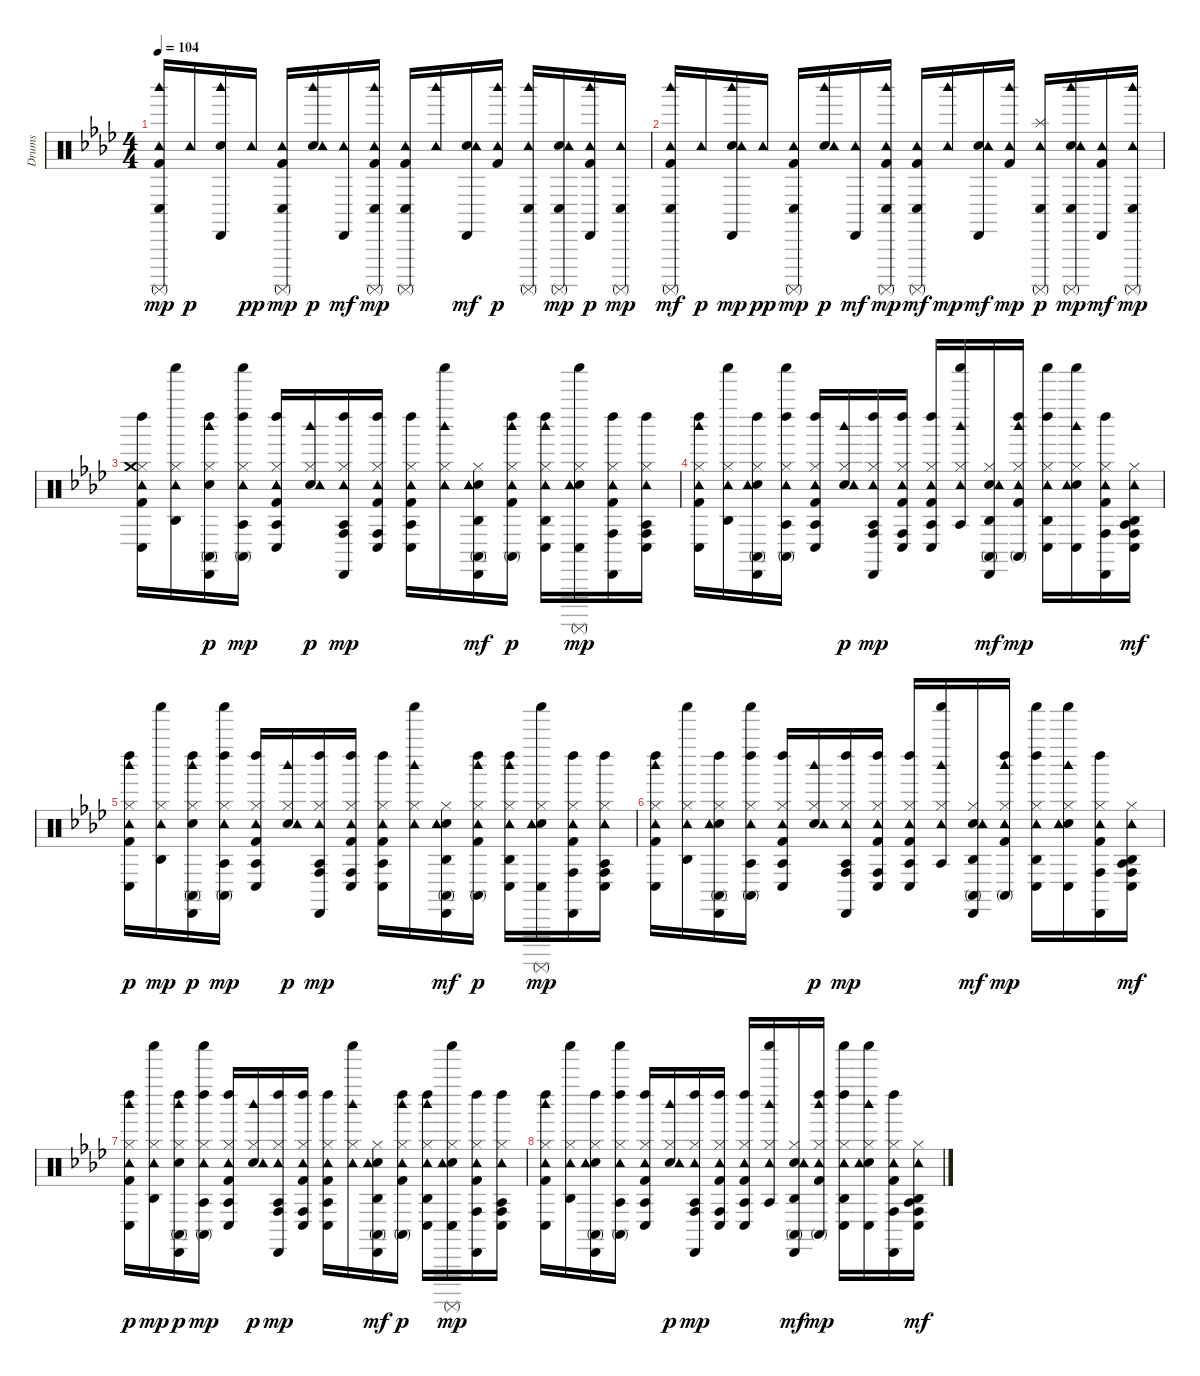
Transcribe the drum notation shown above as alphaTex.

\track ("Drums" "Drums") {instrument percussion}
\staff {score}
\articulation defaults
\ts (4 4)
\tempo 104
\clef neutral
\ks ab
("Kick (hit) 2" "Tambourine (hit)" "Conga low (hit)" "Woodblock high (hit)" "Surdo (mute)").16{dy mp} "Tambourine (hit)".16{dy p} ("Hand Clap (hit)" "Cabasa (hit)" "Woodblock high (hit)").16 "Tambourine (hit)".16{dy pp} ("Kick (hit) 2" "Tambourine (hit)" "Conga low (hit)" "Surdo (mute)").16{dy mp} ("Hand Clap (hit)" "Tambourine (hit)" "Woodblock high (hit)").16{dy p} ("Tambourine (hit)" "Cabasa (hit)").16{dy mf} ("Kick (hit) 2" "Tambourine (hit)" "Conga low (hit)" "Woodblock high (hit)" "Surdo (mute)").16{dy mp} ("Kick (hit) 2" "Tambourine (hit)" "Conga low (hit)" "Surdo (mute)").16 ("Tambourine (hit)" "Woodblock high (hit)").16 ("Hand Clap (hit)" "Tambourine (hit)" "Cabasa (hit)").16{dy mf} ("Kick (hit) 2" "Tambourine (hit)" "Woodblock high (hit)").16{dy p} ("Tambourine (hit)" "Conga low (hit)" "Woodblock high (hit)" "Surdo (mute)").16 ("Hand Clap (hit)" "Tambourine (hit)" "Conga low (hit)" "Surdo (mute)").16{dy mp} ("Kick (hit) 2" "Tambourine (hit)" "Cabasa (hit)" "Woodblock high (hit)").16{dy p} ("Tambourine (hit)" "Conga low (hit)" "Surdo (mute)").16{dy mp} |
("Kick (hit) 2" "Tambourine (hit)" "Conga low (hit)" "Woodblock high (hit)" "Surdo (mute)").16{dy mf} "Tambourine (hit)".16{dy p} ("Hand Clap (hit)" "Tambourine (hit)" "Cabasa (hit)" "Woodblock high (hit)").16{dy mp} "Tambourine (hit)".16{dy pp} ("Kick (hit) 2" "Tambourine (hit)" "Conga low (hit)" "Surdo (mute)").16{dy mp} ("Hand Clap (hit)" "Tambourine (hit)" "Woodblock high (hit)").16{dy p} ("Tambourine (hit)" "Cabasa (hit)").16{dy mf} ("Kick (hit) 2" "Tambourine (hit)" "Conga low (hit)" "Woodblock high (hit)" "Surdo (mute)").16{dy mp} ("Kick (hit) 2" "Tambourine (hit)" "Conga low (hit)" "Surdo (mute)").16{dy mf} ("Tambourine (hit)" "Woodblock high (hit)").16{dy mp} ("Hand Clap (hit)" "Tambourine (hit)" "Cabasa (hit)").16{dy mf} ("Kick (hit) 2" "Tambourine (hit)" "Woodblock high (hit)").16{dy mp} ("Tambourine (hit)" "Splash (hit)" "Conga low (hit)" "Surdo (mute)").16{dy p} ("Hand Clap (hit)" "Tambourine (hit)" "Conga low (hit)" "Woodblock high (hit)" "Surdo (mute)").16{dy mp} ("Kick (hit) 2" "Tambourine (hit)" "Cabasa (hit)").16{dy mf} ("Tambourine (hit)" "Conga low (hit)" "Woodblock high (hit)" "Surdo (mute)").16{dy mp} |
("Kick (hit) 2" "Hi-Hat (closed)" "Tambourine (hit)" "Crash medium (hit)" "Conga low (hit)" "Left Maraca (hit)").16 ("Hi-Hat (closed)" "Tambourine (hit)" "Agogo high (hit)" "Shaker (hit)").16 ("Hand Clap (hit)" "Hi-Hat (closed)" "Conga high (mute)" "Cabasa (hit)" "Left Maraca (hit)" "Woodblock high (hit)").16{dy p} ("Hi-Hat (closed)" "Tambourine (hit)" "Conga high (mute)" "Agogo tow (hit)" "Left Maraca (hit)" "Shaker (hit)").16{dy mp} ("Kick (hit) 2" "Hi-Hat (closed)" "Tambourine (hit)" "Conga low (hit)" "Agogo tow (hit)" "Left Maraca (hit)").16 ("Hand Clap (hit)" "Hi-Hat (closed)" "Tambourine (hit)" "Woodblock high (hit)").16{dy p} ("Hi-Hat (closed)" "Tambourine (hit)" "Conga high (hit)" "Agogo tow (hit)" "Cabasa (hit)" "Left Maraca (hit)").16{dy mp} ("Kick (hit) 2" "Hi-Hat (closed)" "Tambourine (hit)" "Conga high (hit)" "Conga low (hit)" "Left Maraca (hit)").16 ("Kick (hit) 2" "Hi-Hat (closed)" "Tambourine (hit)" "Conga low (hit)" "Agogo tow (hit)" "Left Maraca (hit)").16 ("Hi-Hat (closed)" "Tambourine (hit)" "Woodblock high (hit)" "Shaker (hit)").16 ("Hand Clap (hit)" "Hi-Hat (closed)" "Tambourine (hit)" "Conga high (mute)" "Agogo high (hit)" "Cabasa (hit)").16{dy mf} ("Kick (hit) 2" "Hi-Hat (closed)" "Tambourine (hit)" "Conga high (mute)" "Left Maraca (hit)" "Woodblock high (hit)").16{dy p} ("Hi-Hat (closed)" "Tambourine (hit)" "Conga low (hit)" "Agogo high (hit)" "Left Maraca (hit)" "Woodblock high (hit)").16 ("Hand Clap (hit)" "Hi-Hat (closed)" "Tambourine (hit)" "Conga low (hit)" "Shaker (hit)" "Surdo (mute)").16{dy mp} ("Kick (hit) 2" "Hi-Hat (closed)" "Tambourine (hit)" "Conga high (hit)" "Cabasa (hit)" "Left Maraca (hit)").16 ("Hi-Hat (closed)" "Tambourine (hit)" "Conga high (hit)" "Conga low (hit)" "Agogo tow (hit)" "Left Maraca (hit)").16 |
("Kick (hit) 2" "Hi-Hat (closed)" "Tambourine (hit)" "Conga low (hit)" "Left Maraca (hit)" "Woodblock high (hit)").16 ("Hi-Hat (closed)" "Tambourine (hit)" "Agogo high (hit)" "Shaker (hit)").16 ("Hand Clap (hit)" "Hi-Hat (closed)" "Tambourine (hit)" "Conga high (mute)" "Cabasa (hit)" "Left Maraca (hit)").16 ("Hi-Hat (closed)" "Tambourine (hit)" "Conga high (mute)" "Agogo tow (hit)" "Left Maraca (hit)" "Shaker (hit)").16 ("Kick (hit) 2" "Hi-Hat (closed)" "Tambourine (hit)" "Conga low (hit)" "Agogo tow (hit)" "Left Maraca (hit)").16 ("Hand Clap (hit)" "Hi-Hat (closed)" "Tambourine (hit)" "Woodblock high (hit)").16{dy p} ("Hi-Hat (closed)" "Tambourine (hit)" "Conga high (hit)" "Agogo tow (hit)" "Cabasa (hit)" "Left Maraca (hit)").16{dy mp} ("Kick (hit) 2" "Hi-Hat (closed)" "Tambourine (hit)" "Conga high (hit)" "Conga low (hit)" "Left Maraca (hit)").16 ("Kick (hit) 2" "Hi-Hat (closed)" "Tambourine (hit)" "Conga low (hit)" "Agogo tow (hit)" "Left Maraca (hit)").16 ("Hi-Hat (closed)" "Tambourine (hit)" "Agogo tow (hit)" "Woodblock high (hit)" "Shaker (hit)").16 ("Hand Clap (hit)" "Hi-Hat (closed)" "Tambourine (hit)" "Conga high (mute)" "Agogo high (hit)" "Cabasa (hit)").16{dy mf} ("Kick (hit) 2" "Hi-Hat (closed)" "Tambourine (hit)" "Conga high (mute)" "Left Maraca (hit)" "Woodblock high (hit)").16{dy mp} ("Hi-Hat (closed)" "Tambourine (hit)" "Conga low (hit)" "Agogo high (hit)" "Left Maraca (hit)" "Shaker (hit)").16 ("Hand Clap (hit)" "Hi-Hat (closed)" "Tambourine (hit)" "Conga low (hit)" "Woodblock high (hit)" "Shaker (hit)").16 ("Kick (hit) 2" "Hi-Hat (closed)" "Tambourine (hit)" "Conga high (hit)" "Cabasa (hit)" "Left Maraca (hit)").16 ("Hi-Hat (closed)" "Tambourine (hit)" "Conga high (hit)" "Conga low (hit)" "Agogo high (hit)" "Agogo tow (hit)").16{dy mf} |
("Kick (hit) 2" "Hi-Hat (closed)" "Tambourine (hit)" "Conga low (hit)" "Left Maraca (hit)" "Woodblock high (hit)").16{dy p} ("Hi-Hat (closed)" "Tambourine (hit)" "Agogo high (hit)" "Shaker (hit)").16{dy mp} ("Hand Clap (hit)" "Hi-Hat (closed)" "Conga high (mute)" "Cabasa (hit)" "Left Maraca (hit)" "Woodblock high (hit)").16{dy p} ("Hi-Hat (closed)" "Tambourine (hit)" "Conga high (mute)" "Agogo tow (hit)" "Left Maraca (hit)" "Shaker (hit)").16{dy mp} ("Kick (hit) 2" "Hi-Hat (closed)" "Tambourine (hit)" "Conga low (hit)" "Agogo tow (hit)" "Left Maraca (hit)").16 ("Hand Clap (hit)" "Hi-Hat (closed)" "Tambourine (hit)" "Woodblock high (hit)").16{dy p} ("Hi-Hat (closed)" "Tambourine (hit)" "Conga high (hit)" "Agogo tow (hit)" "Cabasa (hit)" "Left Maraca (hit)").16{dy mp} ("Kick (hit) 2" "Hi-Hat (closed)" "Tambourine (hit)" "Conga high (hit)" "Conga low (hit)" "Left Maraca (hit)").16 ("Kick (hit) 2" "Hi-Hat (closed)" "Tambourine (hit)" "Conga low (hit)" "Agogo tow (hit)" "Left Maraca (hit)").16 ("Hi-Hat (closed)" "Tambourine (hit)" "Woodblock high (hit)" "Shaker (hit)").16 ("Hand Clap (hit)" "Hi-Hat (closed)" "Tambourine (hit)" "Conga high (mute)" "Agogo high (hit)" "Cabasa (hit)").16{dy mf} ("Kick (hit) 2" "Hi-Hat (closed)" "Tambourine (hit)" "Conga high (mute)" "Left Maraca (hit)" "Woodblock high (hit)").16{dy p} ("Hi-Hat (closed)" "Tambourine (hit)" "Conga low (hit)" "Agogo high (hit)" "Left Maraca (hit)" "Woodblock high (hit)").16 ("Hand Clap (hit)" "Hi-Hat (closed)" "Tambourine (hit)" "Conga low (hit)" "Shaker (hit)" "Surdo (mute)").16{dy mp} ("Kick (hit) 2" "Hi-Hat (closed)" "Tambourine (hit)" "Conga high (hit)" "Cabasa (hit)" "Left Maraca (hit)").16 ("Hi-Hat (closed)" "Tambourine (hit)" "Conga high (hit)" "Conga low (hit)" "Agogo tow (hit)" "Left Maraca (hit)").16 |
("Kick (hit) 2" "Hi-Hat (closed)" "Tambourine (hit)" "Conga low (hit)" "Left Maraca (hit)" "Woodblock high (hit)").16 ("Hi-Hat (closed)" "Tambourine (hit)" "Agogo high (hit)" "Shaker (hit)").16 ("Hand Clap (hit)" "Hi-Hat (closed)" "Tambourine (hit)" "Conga high (mute)" "Cabasa (hit)" "Left Maraca (hit)").16 ("Hi-Hat (closed)" "Tambourine (hit)" "Conga high (mute)" "Agogo tow (hit)" "Left Maraca (hit)" "Shaker (hit)").16 ("Kick (hit) 2" "Hi-Hat (closed)" "Tambourine (hit)" "Conga low (hit)" "Agogo tow (hit)" "Left Maraca (hit)").16 ("Hand Clap (hit)" "Hi-Hat (closed)" "Tambourine (hit)" "Woodblock high (hit)").16{dy p} ("Hi-Hat (closed)" "Tambourine (hit)" "Conga high (hit)" "Agogo tow (hit)" "Cabasa (hit)" "Left Maraca (hit)").16{dy mp} ("Kick (hit) 2" "Hi-Hat (closed)" "Tambourine (hit)" "Conga high (hit)" "Conga low (hit)" "Left Maraca (hit)").16 ("Kick (hit) 2" "Hi-Hat (closed)" "Tambourine (hit)" "Conga low (hit)" "Agogo tow (hit)" "Left Maraca (hit)").16 ("Hi-Hat (closed)" "Tambourine (hit)" "Agogo tow (hit)" "Woodblock high (hit)" "Shaker (hit)").16 ("Hand Clap (hit)" "Hi-Hat (closed)" "Tambourine (hit)" "Conga high (mute)" "Agogo high (hit)" "Cabasa (hit)").16{dy mf} ("Kick (hit) 2" "Hi-Hat (closed)" "Tambourine (hit)" "Conga high (mute)" "Left Maraca (hit)" "Woodblock high (hit)").16{dy mp} ("Hi-Hat (closed)" "Tambourine (hit)" "Conga low (hit)" "Agogo high (hit)" "Left Maraca (hit)" "Shaker (hit)").16 ("Hand Clap (hit)" "Hi-Hat (closed)" "Tambourine (hit)" "Conga low (hit)" "Woodblock high (hit)" "Shaker (hit)").16 ("Kick (hit) 2" "Hi-Hat (closed)" "Tambourine (hit)" "Conga high (hit)" "Cabasa (hit)" "Left Maraca (hit)").16 ("Hi-Hat (closed)" "Tambourine (hit)" "Conga high (hit)" "Conga low (hit)" "Agogo high (hit)" "Agogo tow (hit)").16{dy mf} |
("Kick (hit) 2" "Hi-Hat (closed)" "Tambourine (hit)" "Conga low (hit)" "Left Maraca (hit)" "Woodblock high (hit)").16{dy p} ("Hi-Hat (closed)" "Tambourine (hit)" "Agogo high (hit)" "Shaker (hit)").16{dy mp} ("Hand Clap (hit)" "Hi-Hat (closed)" "Conga high (mute)" "Cabasa (hit)" "Left Maraca (hit)" "Woodblock high (hit)").16{dy p} ("Hi-Hat (closed)" "Tambourine (hit)" "Conga high (mute)" "Agogo tow (hit)" "Left Maraca (hit)" "Shaker (hit)").16{dy mp} ("Kick (hit) 2" "Hi-Hat (closed)" "Tambourine (hit)" "Conga low (hit)" "Agogo tow (hit)" "Left Maraca (hit)").16 ("Hand Clap (hit)" "Hi-Hat (closed)" "Tambourine (hit)" "Woodblock high (hit)").16{dy p} ("Hi-Hat (closed)" "Tambourine (hit)" "Conga high (hit)" "Agogo tow (hit)" "Cabasa (hit)" "Left Maraca (hit)").16{dy mp} ("Kick (hit) 2" "Hi-Hat (closed)" "Tambourine (hit)" "Conga high (hit)" "Conga low (hit)" "Left Maraca (hit)").16 ("Kick (hit) 2" "Hi-Hat (closed)" "Tambourine (hit)" "Conga low (hit)" "Agogo tow (hit)" "Left Maraca (hit)").16 ("Hi-Hat (closed)" "Tambourine (hit)" "Woodblock high (hit)" "Shaker (hit)").16 ("Hand Clap (hit)" "Hi-Hat (closed)" "Tambourine (hit)" "Conga high (mute)" "Agogo high (hit)" "Cabasa (hit)").16{dy mf} ("Kick (hit) 2" "Hi-Hat (closed)" "Tambourine (hit)" "Conga high (mute)" "Left Maraca (hit)" "Woodblock high (hit)").16{dy p} ("Hi-Hat (closed)" "Tambourine (hit)" "Conga low (hit)" "Agogo high (hit)" "Left Maraca (hit)" "Woodblock high (hit)").16 ("Hand Clap (hit)" "Hi-Hat (closed)" "Tambourine (hit)" "Conga low (hit)" "Shaker (hit)" "Surdo (mute)").16{dy mp} ("Kick (hit) 2" "Hi-Hat (closed)" "Tambourine (hit)" "Conga high (hit)" "Cabasa (hit)" "Left Maraca (hit)").16 ("Hi-Hat (closed)" "Tambourine (hit)" "Conga high (hit)" "Conga low (hit)" "Agogo tow (hit)" "Left Maraca (hit)").16 |
("Kick (hit) 2" "Hi-Hat (closed)" "Tambourine (hit)" "Conga low (hit)" "Left Maraca (hit)" "Woodblock high (hit)").16 ("Hi-Hat (closed)" "Tambourine (hit)" "Agogo high (hit)" "Shaker (hit)").16 ("Hand Clap (hit)" "Hi-Hat (closed)" "Tambourine (hit)" "Conga high (mute)" "Cabasa (hit)" "Left Maraca (hit)").16 ("Hi-Hat (closed)" "Tambourine (hit)" "Conga high (mute)" "Agogo tow (hit)" "Left Maraca (hit)" "Shaker (hit)").16 ("Kick (hit) 2" "Hi-Hat (closed)" "Tambourine (hit)" "Conga low (hit)" "Agogo tow (hit)" "Left Maraca (hit)").16 ("Hand Clap (hit)" "Hi-Hat (closed)" "Tambourine (hit)" "Woodblock high (hit)").16{dy p} ("Hi-Hat (closed)" "Tambourine (hit)" "Conga high (hit)" "Agogo tow (hit)" "Cabasa (hit)" "Left Maraca (hit)").16{dy mp} ("Kick (hit) 2" "Hi-Hat (closed)" "Tambourine (hit)" "Conga high (hit)" "Conga low (hit)" "Left Maraca (hit)").16 ("Kick (hit) 2" "Hi-Hat (closed)" "Tambourine (hit)" "Conga low (hit)" "Agogo tow (hit)" "Left Maraca (hit)").16 ("Hi-Hat (closed)" "Tambourine (hit)" "Agogo tow (hit)" "Woodblock high (hit)" "Shaker (hit)").16 ("Hand Clap (hit)" "Hi-Hat (closed)" "Tambourine (hit)" "Conga high (mute)" "Agogo high (hit)" "Cabasa (hit)").16{dy mf} ("Kick (hit) 2" "Hi-Hat (closed)" "Tambourine (hit)" "Conga high (mute)" "Left Maraca (hit)" "Woodblock high (hit)").16{dy mp} ("Hi-Hat (closed)" "Tambourine (hit)" "Conga low (hit)" "Agogo high (hit)" "Left Maraca (hit)" "Shaker (hit)").16 ("Hand Clap (hit)" "Hi-Hat (closed)" "Tambourine (hit)" "Conga low (hit)" "Woodblock high (hit)" "Shaker (hit)").16 ("Kick (hit) 2" "Hi-Hat (closed)" "Tambourine (hit)" "Conga high (hit)" "Cabasa (hit)" "Left Maraca (hit)").16 ("Hi-Hat (closed)" "Tambourine (hit)" "Conga high (hit)" "Conga low (hit)" "Agogo high (hit)" "Agogo tow (hit)").16{dy mf}
